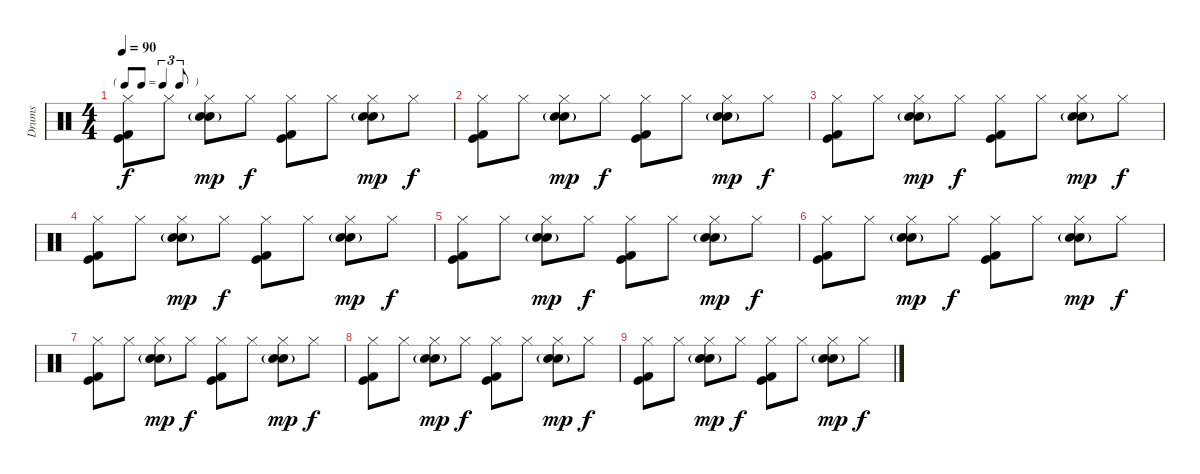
\track ("Drums" "Drums") {instrument percussion}
\staff {score}
\articulation defaults
\ts (4 4)
\tf triplet8th
\tempo 90
\clef neutral
\ks c
("Hi-Hat (closed)" "Kick (hit)" "Kick (hit) 2").8{dy f} "Hi-Hat (closed)".8 ("Hi-Hat (closed)" "Snare (hit) 2" "Hand Clap (hit)"{g}).8{dy mp} "Hi-Hat (closed)".8{dy f} ("Hi-Hat (closed)" "Kick (hit)" "Kick (hit) 2").8 "Hi-Hat (closed)".8 ("Hi-Hat (closed)" "Snare (hit) 2" "Hand Clap (hit)"{g}).8{dy mp} "Hi-Hat (closed)".8{dy f} |
("Hi-Hat (closed)" "Kick (hit)" "Kick (hit) 2").8 "Hi-Hat (closed)".8 ("Hi-Hat (closed)" "Snare (hit) 2" "Hand Clap (hit)"{g}).8{dy mp} "Hi-Hat (closed)".8{dy f} ("Hi-Hat (closed)" "Kick (hit)" "Kick (hit) 2").8 "Hi-Hat (closed)".8 ("Hi-Hat (closed)" "Snare (hit) 2" "Hand Clap (hit)"{g}).8{dy mp} "Hi-Hat (closed)".8{dy f} |
("Hi-Hat (closed)" "Kick (hit)" "Kick (hit) 2").8 "Hi-Hat (closed)".8 ("Hi-Hat (closed)" "Snare (hit) 2" "Hand Clap (hit)"{g}).8{dy mp} "Hi-Hat (closed)".8{dy f} ("Hi-Hat (closed)" "Kick (hit)" "Kick (hit) 2").8 "Hi-Hat (closed)".8 ("Hi-Hat (closed)" "Snare (hit) 2" "Hand Clap (hit)"{g}).8{dy mp} "Hi-Hat (closed)".8{dy f} |
("Hi-Hat (closed)" "Kick (hit)" "Kick (hit) 2").8 "Hi-Hat (closed)".8 ("Hi-Hat (closed)" "Snare (hit) 2" "Hand Clap (hit)"{g}).8{dy mp} "Hi-Hat (closed)".8{dy f} ("Hi-Hat (closed)" "Kick (hit)" "Kick (hit) 2").8 "Hi-Hat (closed)".8 ("Hi-Hat (closed)" "Snare (hit) 2" "Hand Clap (hit)"{g}).8{dy mp} "Hi-Hat (closed)".8{dy f} |
("Hi-Hat (closed)" "Kick (hit)" "Kick (hit) 2").8 "Hi-Hat (closed)".8 ("Hi-Hat (closed)" "Snare (hit) 2" "Hand Clap (hit)"{g}).8{dy mp} "Hi-Hat (closed)".8{dy f} ("Hi-Hat (closed)" "Kick (hit)" "Kick (hit) 2").8 "Hi-Hat (closed)".8 ("Hi-Hat (closed)" "Snare (hit) 2" "Hand Clap (hit)"{g}).8{dy mp} "Hi-Hat (closed)".8{dy f} |
("Hi-Hat (closed)" "Kick (hit)" "Kick (hit) 2").8 "Hi-Hat (closed)".8 ("Hi-Hat (closed)" "Snare (hit) 2" "Hand Clap (hit)"{g}).8{dy mp} "Hi-Hat (closed)".8{dy f} ("Hi-Hat (closed)" "Kick (hit)" "Kick (hit) 2").8 "Hi-Hat (closed)".8 ("Hi-Hat (closed)" "Snare (hit) 2" "Hand Clap (hit)"{g}).8{dy mp} "Hi-Hat (closed)".8{dy f} |
("Hi-Hat (closed)" "Kick (hit)" "Kick (hit) 2").8 "Hi-Hat (closed)".8 ("Hi-Hat (closed)" "Snare (hit) 2" "Hand Clap (hit)"{g}).8{dy mp} "Hi-Hat (closed)".8{dy f} ("Hi-Hat (closed)" "Kick (hit)" "Kick (hit) 2").8 "Hi-Hat (closed)".8 ("Hi-Hat (closed)" "Snare (hit) 2" "Hand Clap (hit)"{g}).8{dy mp} "Hi-Hat (closed)".8{dy f} |
("Hi-Hat (closed)" "Kick (hit)" "Kick (hit) 2").8 "Hi-Hat (closed)".8 ("Hi-Hat (closed)" "Snare (hit) 2" "Hand Clap (hit)"{g}).8{dy mp} "Hi-Hat (closed)".8{dy f} ("Hi-Hat (closed)" "Kick (hit)" "Kick (hit) 2").8 "Hi-Hat (closed)".8 ("Hi-Hat (closed)" "Snare (hit) 2" "Hand Clap (hit)"{g}).8{dy mp} "Hi-Hat (closed)".8{dy f} |
("Hi-Hat (closed)" "Kick (hit)" "Kick (hit) 2").8 "Hi-Hat (closed)".8 ("Hi-Hat (closed)" "Snare (hit) 2" "Hand Clap (hit)"{g}).8{dy mp} "Hi-Hat (closed)".8{dy f} ("Hi-Hat (closed)" "Kick (hit)" "Kick (hit) 2").8 "Hi-Hat (closed)".8 ("Hi-Hat (closed)" "Snare (hit) 2" "Hand Clap (hit)"{g}).8{dy mp} "Hi-Hat (closed)".8{dy f}
